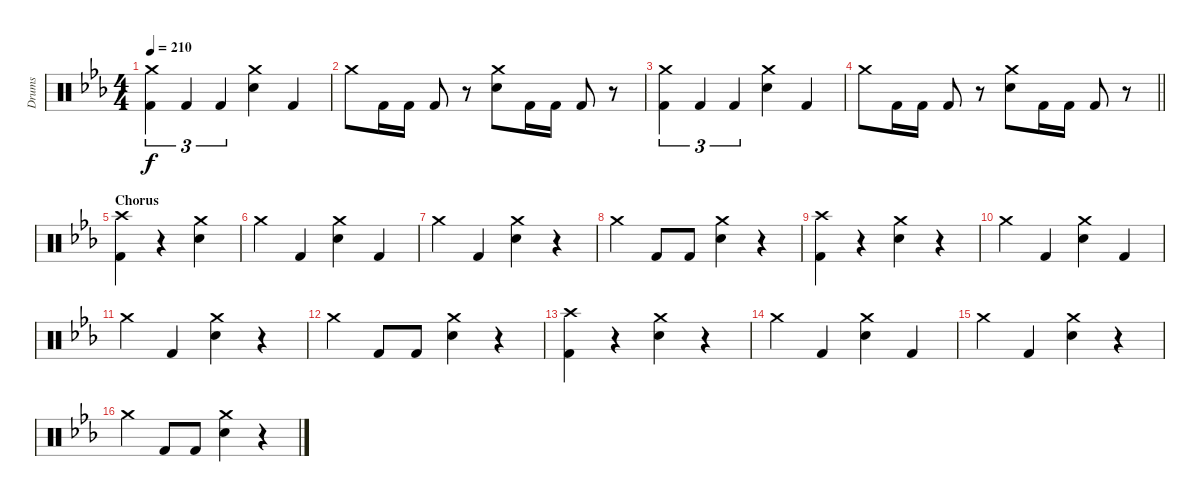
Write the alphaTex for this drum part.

\track ("Drums" "Drums") {instrument percussion}
\staff {score}
\articulation defaults
\ts (4 4)
\tempo 210
\clef neutral
\ks cminor
("Crash medium (hit)" "Kick (hit) 2").4{tu (3 2) dy f} "Kick (hit) 2".4{tu (3 2)} "Kick (hit) 2".4{tu (3 2)} ("Crash medium (hit)" "Electric Snare (hit)").4 "Kick (hit) 2".4 |
"Crash medium (hit)".8 "Kick (hit) 2".16 "Kick (hit) 2".16 "Kick (hit) 2".8 r.8 ("Crash medium (hit)" "Electric Snare (hit)").8 "Kick (hit) 2".16 "Kick (hit) 2".16 "Kick (hit) 2".8 r.8 |
("Crash medium (hit)" "Kick (hit) 2").4{tu (3 2)} "Kick (hit) 2".4{tu (3 2)} "Kick (hit) 2".4{tu (3 2)} ("Crash medium (hit)" "Electric Snare (hit)").4 "Kick (hit) 2".4 |
\barLineRight lightlight "Crash medium (hit)".8 "Kick (hit) 2".16 "Kick (hit) 2".16 "Kick (hit) 2".8
r.8 ("Crash medium (hit)" "Electric Snare (hit)").8 "Kick (hit) 2".16 "Kick (hit) 2".16 "Kick (hit) 2".8 r.8 |
\section ("" "Chorus")
("Crash high (hit)" "Kick (hit) 2").4 r.4 ("Crash medium (hit)" "Electric Snare (hit)").4 |
"Crash medium (hit)".4 "Kick (hit) 2".4 ("Crash medium (hit)" "Electric Snare (hit)").4 "Kick (hit) 2".4 |
"Crash medium (hit)".4 "Kick (hit) 2".4 ("Crash medium (hit)" "Electric Snare (hit)").4 r.4 |
"Crash medium (hit)".4 "Kick (hit) 2".8 "Kick (hit) 2".8 ("Crash medium (hit)" "Electric Snare (hit)").4 r.4 |
("Crash high (hit)" "Kick (hit) 2").4 r.4 ("Crash medium (hit)" "Electric Snare (hit)").4 r.4 |
"Crash medium (hit)".4 "Kick (hit) 2".4 ("Crash medium (hit)" "Electric Snare (hit)").4 "Kick (hit) 2".4 |
"Crash medium (hit)".4 "Kick (hit) 2".4 ("Crash medium (hit)" "Electric Snare (hit)").4 r.4 |
"Crash medium (hit)".4 "Kick (hit) 2".8 "Kick (hit) 2".8 ("Crash medium (hit)" "Electric Snare (hit)").4 r.4 |
("Crash high (hit)" "Kick (hit) 2").4 r.4 ("Crash medium (hit)" "Electric Snare (hit)").4 r.4 |
"Crash medium (hit)".4 "Kick (hit) 2".4 ("Crash medium (hit)" "Electric Snare (hit)").4 "Kick (hit) 2".4 |
"Crash medium (hit)".4 "Kick (hit) 2".4 ("Crash medium (hit)" "Electric Snare (hit)").4 r.4 |
"Crash medium (hit)".4 "Kick (hit) 2".8 "Kick (hit) 2".8 ("Crash medium (hit)" "Electric Snare (hit)").4 r.4
